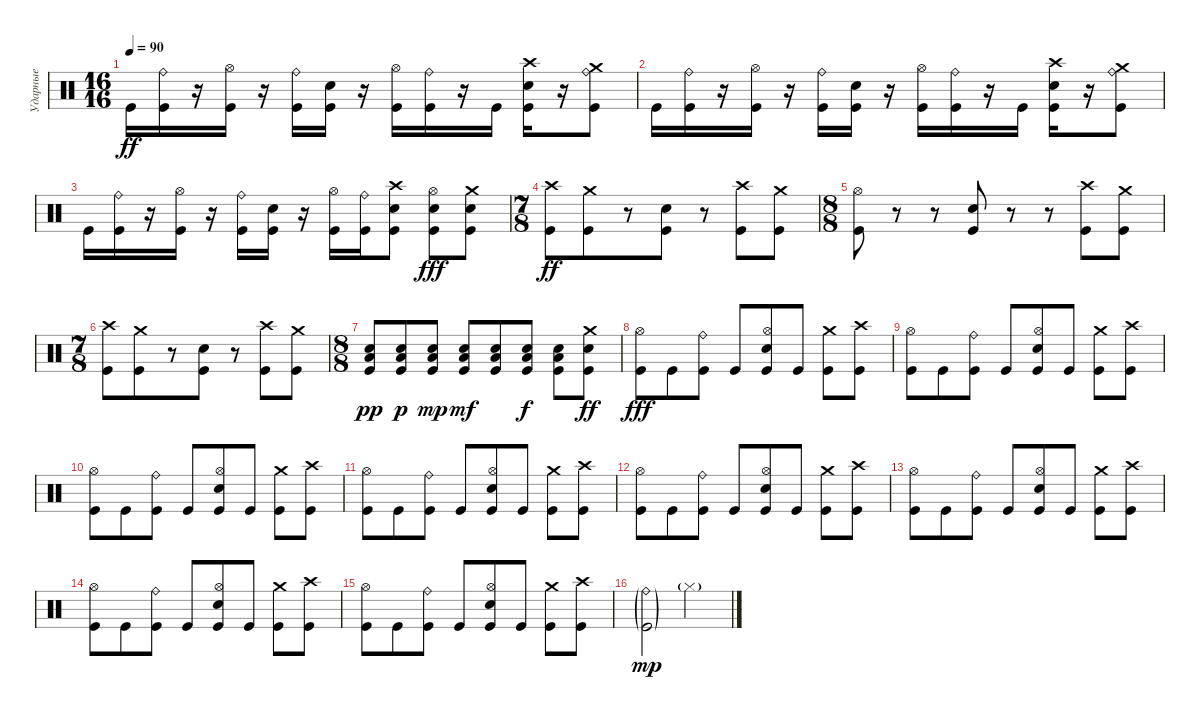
\track ("Ударные" "Ударные") {instrument percussion}
\staff {score}
\articulation defaults
\ts (16 16)
\tempo 90
\clef neutral
\ks c "Kick (hit)".16{dy ff}
("Ride (bell)" "Kick (hit)").16 r.16 ("Hi-Hat (open)" "Kick (hit)").16 r.16 ("Ride (bell)" "Kick (hit)").16 ("Snare (hit) 2" "Kick (hit)").16 r.16 ("Hi-Hat (open)" "Kick (hit)").16 ("Ride (bell)" "Kick (hit)").16 r.16 "Kick (hit)".16 ("Crash high (hit)" "Snare (hit) 2" "Kick (hit)").16 r.16 ("Crash medium (hit)" "Ride (bell)" "Kick (hit)").8 |
"Kick (hit)".16 ("Ride (bell)" "Kick (hit)").16 r.16 ("Hi-Hat (open)" "Kick (hit)").16 r.16 ("Ride (bell)" "Kick (hit)").16 ("Snare (hit) 2" "Kick (hit)").16 r.16 ("Hi-Hat (open)" "Kick (hit)").16 ("Ride (bell)" "Kick (hit)").16 r.16 "Kick (hit)".16 ("Crash high (hit)" "Snare (hit) 2" "Kick (hit)").16 r.16 ("Crash medium (hit)" "Ride (bell)" "Kick (hit)").8 |
"Kick (hit)".16 ("Ride (bell)" "Kick (hit)").16 r.16 ("Hi-Hat (open)" "Kick (hit)").16 r.16 ("Ride (bell)" "Kick (hit)").16 ("Snare (hit) 2" "Kick (hit)").16 r.16 ("Hi-Hat (open)" "Kick (hit)").16 ("Ride (bell)" "Kick (hit)").16 ("Crash high (hit)" "Snare (hit) 2" "Kick (hit)").8 ("Hi-Hat (open)" "Snare (hit) 2" "Kick (hit)").8{dy fff} ("Crash medium (hit)" "Snare (hit) 2" "Kick (hit)").8 |
\ts (7 8)
("Crash high (hit)" "Kick (hit)").8{dy ff} ("Crash medium (hit)" "Kick (hit)").8 r.8 ("Snare (hit) 2" "Kick (hit)").8 r.8 ("Crash high (hit)" "Kick (hit)").8 ("Crash medium (hit)" "Kick (hit)").8 |
\ts (8 8)
("Hi-Hat (open)" "Kick (hit)").8 r.8 r.8 ("Snare (hit) 2" "Kick (hit)").8 r.8 r.8 ("Crash high (hit)" "Kick (hit)").8 ("Crash medium (hit)" "Kick (hit)").8 |
\ts (7 8)
("Crash high (hit)" "Kick (hit)").8 ("Crash medium (hit)" "Kick (hit)").8 r.8 ("Snare (hit) 2" "Kick (hit)").8 r.8 ("Crash high (hit)" "Kick (hit)").8 ("Crash medium (hit)" "Kick (hit)").8 |
\ts (8 8)
("Snare (hit) 2" "Low Floor Tom (hit)" "Kick (hit)").8{dy pp} ("Snare (hit) 2" "Low Floor Tom (hit)" "Kick (hit)").8{dy p} ("Snare (hit) 2" "Low Floor Tom (hit)" "Kick (hit)").8{dy mp} ("Snare (hit) 2" "Low Floor Tom (hit)" "Kick (hit)").8{dy mf} ("Snare (hit) 2" "Low Floor Tom (hit)" "Kick (hit)").8 ("Snare (hit) 2" "Low Floor Tom (hit)" "Kick (hit)").8{dy f} ("Snare (hit) 2" "Low Floor Tom (hit)" "Kick (hit)").8 ("Snare (hit) 2" "Crash medium (hit)" "Kick (hit)").8{dy ff} |
("Kick (hit)" "Hi-Hat (open)").8{dy fff} "Kick (hit)".8 ("Kick (hit)" "Ride (bell)").8 "Kick (hit)".8 ("Kick (hit)" "Snare (hit) 2" "Hi-Hat (open)").8 "Kick (hit)".8 ("Kick (hit)" "Crash medium (hit)").8 ("Kick (hit)" "Crash high (hit)").8 |
("Kick (hit)" "Hi-Hat (open)").8 "Kick (hit)".8 ("Kick (hit)" "Ride (bell)").8 "Kick (hit)".8 ("Kick (hit)" "Snare (hit) 2" "Hi-Hat (open)").8 "Kick (hit)".8 ("Kick (hit)" "Crash medium (hit)").8 ("Kick (hit)" "Crash high (hit)").8 |
("Kick (hit)" "Hi-Hat (open)").8 "Kick (hit)".8 ("Kick (hit)" "Ride (bell)").8 "Kick (hit)".8 ("Kick (hit)" "Snare (hit) 2" "Hi-Hat (open)").8 "Kick (hit)".8 ("Kick (hit)" "Crash medium (hit)").8 ("Kick (hit)" "Crash high (hit)").8 |
("Kick (hit)" "Hi-Hat (open)").8 "Kick (hit)".8 ("Kick (hit)" "Ride (bell)").8 "Kick (hit)".8 ("Kick (hit)" "Snare (hit) 2" "Hi-Hat (open)").8 "Kick (hit)".8 ("Kick (hit)" "Crash medium (hit)").8 ("Kick (hit)" "Crash high (hit)").8 |
("Kick (hit)" "Hi-Hat (open)").8 "Kick (hit)".8 ("Kick (hit)" "Ride (bell)").8 "Kick (hit)".8 ("Kick (hit)" "Snare (hit) 2" "Hi-Hat (open)").8 "Kick (hit)".8 ("Kick (hit)" "Crash medium (hit)").8 ("Kick (hit)" "Crash high (hit)").8 |
("Kick (hit)" "Hi-Hat (open)").8 "Kick (hit)".8 ("Kick (hit)" "Ride (bell)").8 "Kick (hit)".8 ("Kick (hit)" "Snare (hit) 2" "Hi-Hat (open)").8 "Kick (hit)".8 ("Kick (hit)" "Crash medium (hit)").8 ("Kick (hit)" "Crash high (hit)").8 |
("Kick (hit)" "Hi-Hat (open)").8 "Kick (hit)".8 ("Kick (hit)" "Ride (bell)").8 "Kick (hit)".8 ("Kick (hit)" "Snare (hit) 2" "Hi-Hat (open)").8 "Kick (hit)".8 ("Kick (hit)" "Crash medium (hit)").8 ("Kick (hit)" "Crash high (hit)").8 |
("Kick (hit)" "Hi-Hat (open)").8 "Kick (hit)".8 ("Kick (hit)" "Ride (bell)").8 "Kick (hit)".8 ("Kick (hit)" "Snare (hit) 2" "Hi-Hat (open)").8 "Kick (hit)".8 ("Kick (hit)" "Crash medium (hit)").8 ("Kick (hit)" "Crash high (hit)").8 |
("Kick (hit)"{g} "Ride (bell)"{g}).2{dy mp} "Hi-Hat (closed)"{g}.2
